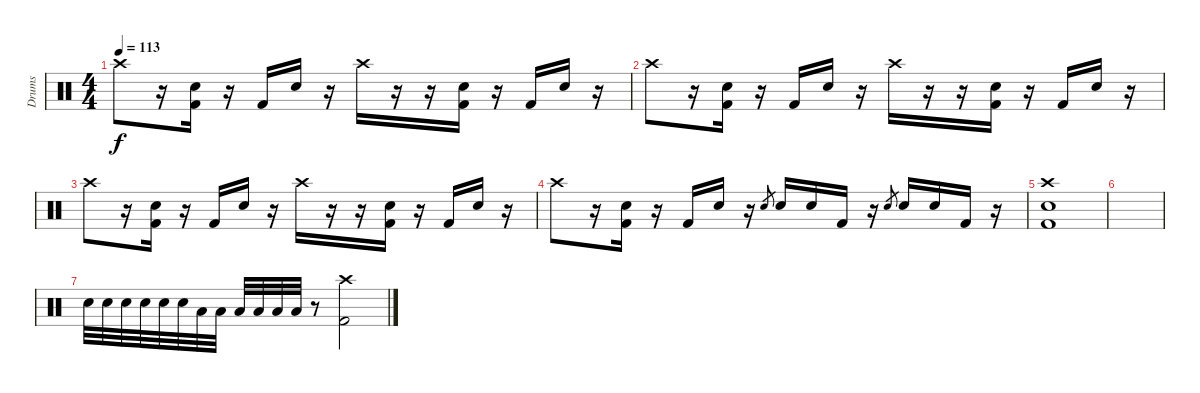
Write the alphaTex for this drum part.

\track ("Drums" "Drums") {instrument percussion}
\staff {score}
\articulation defaults
\ts (4 4)
\tempo 113
\clef neutral
\ks c "Crash high (hit)".8{dy f}
r.16 ("Snare (hit) 2" "Kick (hit) 2").16 r.16 "Kick (hit) 2".16 "Snare (hit) 2".16 r.16 "Crash high (hit)".16 r.16 r.16 ("Snare (hit) 2" "Kick (hit) 2").16 r.16 "Kick (hit) 2".16 "Snare (hit) 2".16 r.16 |
"Crash high (hit)".8 r.16 ("Snare (hit) 2" "Kick (hit) 2").16 r.16 "Kick (hit) 2".16 "Snare (hit) 2".16 r.16 "Crash high (hit)".16 r.16 r.16 ("Snare (hit) 2" "Kick (hit) 2").16 r.16 "Kick (hit) 2".16 "Snare (hit) 2".16 r.16 |
"Crash high (hit)".8 r.16 ("Snare (hit) 2" "Kick (hit) 2").16 r.16 "Kick (hit) 2".16 "Snare (hit) 2".16 r.16 "Crash high (hit)".16 r.16 r.16 ("Snare (hit) 2" "Kick (hit) 2").16 r.16 "Kick (hit) 2".16 "Snare (hit) 2".16 r.16 |
"Crash high (hit)".8 r.16 ("Snare (hit) 2" "Kick (hit) 2").16 r.16 "Kick (hit) 2".16 "Snare (hit) 2".16 r.16 "Snare (hit) 2".8{gr} "Snare (hit) 2".16 "Snare (hit) 2".16 "Kick (hit) 2".16 r.16 "Snare (hit) 2".8{gr} "Snare (hit) 2".16 "Snare (hit) 2".16 "Kick (hit) 2".16 r.16 |
("Crash high (hit)" "Snare (hit) 2" "Kick (hit) 2").1 |
|
"Snare (hit) 2".32 "Snare (hit) 2".32 "Snare (hit) 2".32 "Snare (hit) 2".32 "Snare (hit) 2".32 "Snare (hit) 2".32 "Low Tom (hit)".32 "Low Tom (hit)".32 "Low Tom (hit)".32 "Low Tom (hit)".32 "Low Tom (hit)".32 "Low Tom (hit)".32 r.8 ("Crash high (hit)" "Kick (hit) 2").2
